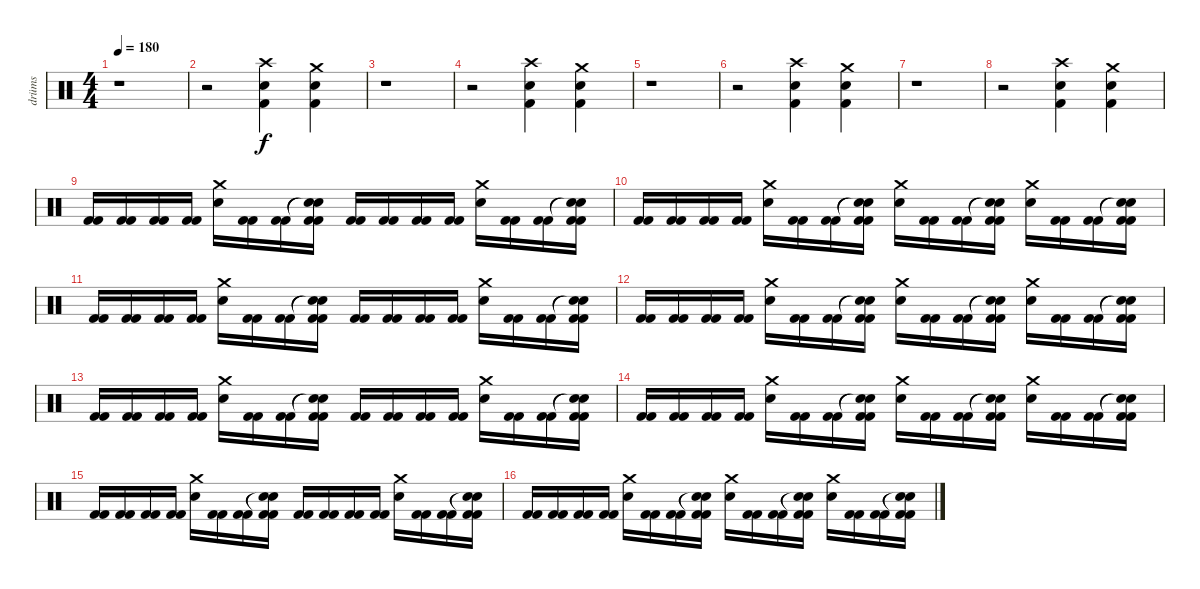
\track ("drüms" "drüms") {instrument percussion}
\staff {score}
\articulation defaults
\ts (4 4)
\tempo 180
\clef neutral
\ks c
r.1{dy f} |
r.2 ("Crash high (hit)" "Electric Snare (hit)" "Kick (hit) 2").4 ("Crash medium (hit)" "Electric Snare (hit)" "Kick (hit) 2").4 |
r.1 |
r.2 ("Crash high (hit)" "Electric Snare (hit)" "Kick (hit) 2").4 ("Crash medium (hit)" "Electric Snare (hit)" "Kick (hit) 2").4 |
r.1 |
r.2 ("Crash high (hit)" "Electric Snare (hit)" "Kick (hit) 2").4 ("Crash medium (hit)" "Electric Snare (hit)" "Kick (hit) 2").4 |
r.1 |
r.2 ("Crash high (hit)" "Electric Snare (hit)" "Kick (hit) 2").4 ("Crash medium (hit)" "Electric Snare (hit)" "Kick (hit) 2").4 |
("Kick (hit) 2" "Kick (hit) 2").16 ("Kick (hit) 2" "Kick (hit) 2").16 ("Kick (hit) 2" "Kick (hit) 2").16 ("Kick (hit) 2" "Kick (hit) 2").16 ("Crash medium (hit)" "Electric Snare (hit)").16 ("Kick (hit) 2" "Kick (hit) 2").16 ("Kick (hit) 2" "Kick (hit) 2").16 ("Snare (hit)"{t} "Snare (hit)"{t} "Kick (hit) 2" "Kick (hit) 2").16 ("Kick (hit) 2" "Kick (hit) 2").16 ("Kick (hit) 2" "Kick (hit) 2").16 ("Kick (hit) 2" "Kick (hit) 2").16 ("Kick (hit) 2" "Kick (hit) 2").16 ("Crash medium (hit)" "Electric Snare (hit)").16 ("Kick (hit) 2" "Kick (hit) 2").16 ("Kick (hit) 2" "Kick (hit) 2").16 ("Snare (hit)"{t} "Snare (hit)"{t} "Kick (hit) 2" "Kick (hit) 2").16 |
("Kick (hit) 2" "Kick (hit) 2").16 ("Kick (hit) 2" "Kick (hit) 2").16 ("Kick (hit) 2" "Kick (hit) 2").16 ("Kick (hit) 2" "Kick (hit) 2").16 ("Crash medium (hit)" "Electric Snare (hit)").16 ("Kick (hit) 2" "Kick (hit) 2").16 ("Kick (hit) 2" "Kick (hit) 2").16 ("Snare (hit)"{t} "Snare (hit)"{t} "Kick (hit) 2" "Kick (hit) 2").16 ("Crash medium (hit)" "Electric Snare (hit)").16 ("Kick (hit) 2" "Kick (hit) 2").16 ("Kick (hit) 2" "Kick (hit) 2").16 ("Snare (hit)"{t} "Snare (hit)"{t} "Kick (hit) 2" "Kick (hit) 2").16 ("Crash medium (hit)" "Electric Snare (hit)").16 ("Kick (hit) 2" "Kick (hit) 2").16 ("Kick (hit) 2" "Kick (hit) 2").16 ("Snare (hit)"{t} "Snare (hit)"{t} "Kick (hit) 2" "Kick (hit) 2").16 |
("Kick (hit) 2" "Kick (hit) 2").16 ("Kick (hit) 2" "Kick (hit) 2").16 ("Kick (hit) 2" "Kick (hit) 2").16 ("Kick (hit) 2" "Kick (hit) 2").16 ("Crash medium (hit)" "Electric Snare (hit)").16 ("Kick (hit) 2" "Kick (hit) 2").16 ("Kick (hit) 2" "Kick (hit) 2").16 ("Snare (hit)"{t} "Snare (hit)"{t} "Kick (hit) 2" "Kick (hit) 2").16 ("Kick (hit) 2" "Kick (hit) 2").16 ("Kick (hit) 2" "Kick (hit) 2").16 ("Kick (hit) 2" "Kick (hit) 2").16 ("Kick (hit) 2" "Kick (hit) 2").16 ("Crash medium (hit)" "Electric Snare (hit)").16 ("Kick (hit) 2" "Kick (hit) 2").16 ("Kick (hit) 2" "Kick (hit) 2").16 ("Snare (hit)"{t} "Snare (hit)"{t} "Kick (hit) 2" "Kick (hit) 2").16 |
("Kick (hit) 2" "Kick (hit) 2").16 ("Kick (hit) 2" "Kick (hit) 2").16 ("Kick (hit) 2" "Kick (hit) 2").16 ("Kick (hit) 2" "Kick (hit) 2").16 ("Crash medium (hit)" "Electric Snare (hit)").16 ("Kick (hit) 2" "Kick (hit) 2").16 ("Kick (hit) 2" "Kick (hit) 2").16 ("Snare (hit)"{t} "Snare (hit)"{t} "Kick (hit) 2" "Kick (hit) 2").16 ("Crash medium (hit)" "Electric Snare (hit)").16 ("Kick (hit) 2" "Kick (hit) 2").16 ("Kick (hit) 2" "Kick (hit) 2").16 ("Snare (hit)"{t} "Snare (hit)"{t} "Kick (hit) 2" "Kick (hit) 2").16 ("Crash medium (hit)" "Electric Snare (hit)").16 ("Kick (hit) 2" "Kick (hit) 2").16 ("Kick (hit) 2" "Kick (hit) 2").16 ("Snare (hit)"{t} "Snare (hit)"{t} "Kick (hit) 2" "Kick (hit) 2").16 |
("Kick (hit) 2" "Kick (hit) 2").16 ("Kick (hit) 2" "Kick (hit) 2").16 ("Kick (hit) 2" "Kick (hit) 2").16 ("Kick (hit) 2" "Kick (hit) 2").16 ("Crash medium (hit)" "Electric Snare (hit)").16 ("Kick (hit) 2" "Kick (hit) 2").16 ("Kick (hit) 2" "Kick (hit) 2").16 ("Snare (hit)"{t} "Snare (hit)"{t} "Kick (hit) 2" "Kick (hit) 2").16 ("Kick (hit) 2" "Kick (hit) 2").16 ("Kick (hit) 2" "Kick (hit) 2").16 ("Kick (hit) 2" "Kick (hit) 2").16 ("Kick (hit) 2" "Kick (hit) 2").16 ("Crash medium (hit)" "Electric Snare (hit)").16 ("Kick (hit) 2" "Kick (hit) 2").16 ("Kick (hit) 2" "Kick (hit) 2").16 ("Snare (hit)"{t} "Snare (hit)"{t} "Kick (hit) 2" "Kick (hit) 2").16 |
("Kick (hit) 2" "Kick (hit) 2").16 ("Kick (hit) 2" "Kick (hit) 2").16 ("Kick (hit) 2" "Kick (hit) 2").16 ("Kick (hit) 2" "Kick (hit) 2").16 ("Crash medium (hit)" "Electric Snare (hit)").16 ("Kick (hit) 2" "Kick (hit) 2").16 ("Kick (hit) 2" "Kick (hit) 2").16 ("Snare (hit)"{t} "Snare (hit)"{t} "Kick (hit) 2" "Kick (hit) 2").16 ("Crash medium (hit)" "Electric Snare (hit)").16 ("Kick (hit) 2" "Kick (hit) 2").16 ("Kick (hit) 2" "Kick (hit) 2").16 ("Snare (hit)"{t} "Snare (hit)"{t} "Kick (hit) 2" "Kick (hit) 2").16 ("Crash medium (hit)" "Electric Snare (hit)").16 ("Kick (hit) 2" "Kick (hit) 2").16 ("Kick (hit) 2" "Kick (hit) 2").16 ("Snare (hit)"{t} "Snare (hit)"{t} "Kick (hit) 2" "Kick (hit) 2").16 |
("Kick (hit) 2" "Kick (hit) 2").16 ("Kick (hit) 2" "Kick (hit) 2").16 ("Kick (hit) 2" "Kick (hit) 2").16 ("Kick (hit) 2" "Kick (hit) 2").16 ("Crash medium (hit)" "Electric Snare (hit)").16 ("Kick (hit) 2" "Kick (hit) 2").16 ("Kick (hit) 2" "Kick (hit) 2").16 ("Snare (hit)"{t} "Snare (hit)"{t} "Kick (hit) 2" "Kick (hit) 2").16 ("Kick (hit) 2" "Kick (hit) 2").16 ("Kick (hit) 2" "Kick (hit) 2").16 ("Kick (hit) 2" "Kick (hit) 2").16 ("Kick (hit) 2" "Kick (hit) 2").16 ("Crash medium (hit)" "Electric Snare (hit)").16 ("Kick (hit) 2" "Kick (hit) 2").16 ("Kick (hit) 2" "Kick (hit) 2").16 ("Snare (hit)"{t} "Snare (hit)"{t} "Kick (hit) 2" "Kick (hit) 2").16 |
("Kick (hit) 2" "Kick (hit) 2").16 ("Kick (hit) 2" "Kick (hit) 2").16 ("Kick (hit) 2" "Kick (hit) 2").16 ("Kick (hit) 2" "Kick (hit) 2").16 ("Crash medium (hit)" "Electric Snare (hit)").16 ("Kick (hit) 2" "Kick (hit) 2").16 ("Kick (hit) 2" "Kick (hit) 2").16 ("Snare (hit)"{t} "Snare (hit)"{t} "Kick (hit) 2" "Kick (hit) 2").16 ("Crash medium (hit)" "Electric Snare (hit)").16 ("Kick (hit) 2" "Kick (hit) 2").16 ("Kick (hit) 2" "Kick (hit) 2").16 ("Snare (hit)"{t} "Snare (hit)"{t} "Kick (hit) 2" "Kick (hit) 2").16 ("Crash medium (hit)" "Electric Snare (hit)").16 ("Kick (hit) 2" "Kick (hit) 2").16 ("Kick (hit) 2" "Kick (hit) 2").16 ("Snare (hit)"{t} "Snare (hit)"{t} "Kick (hit) 2" "Kick (hit) 2").16
